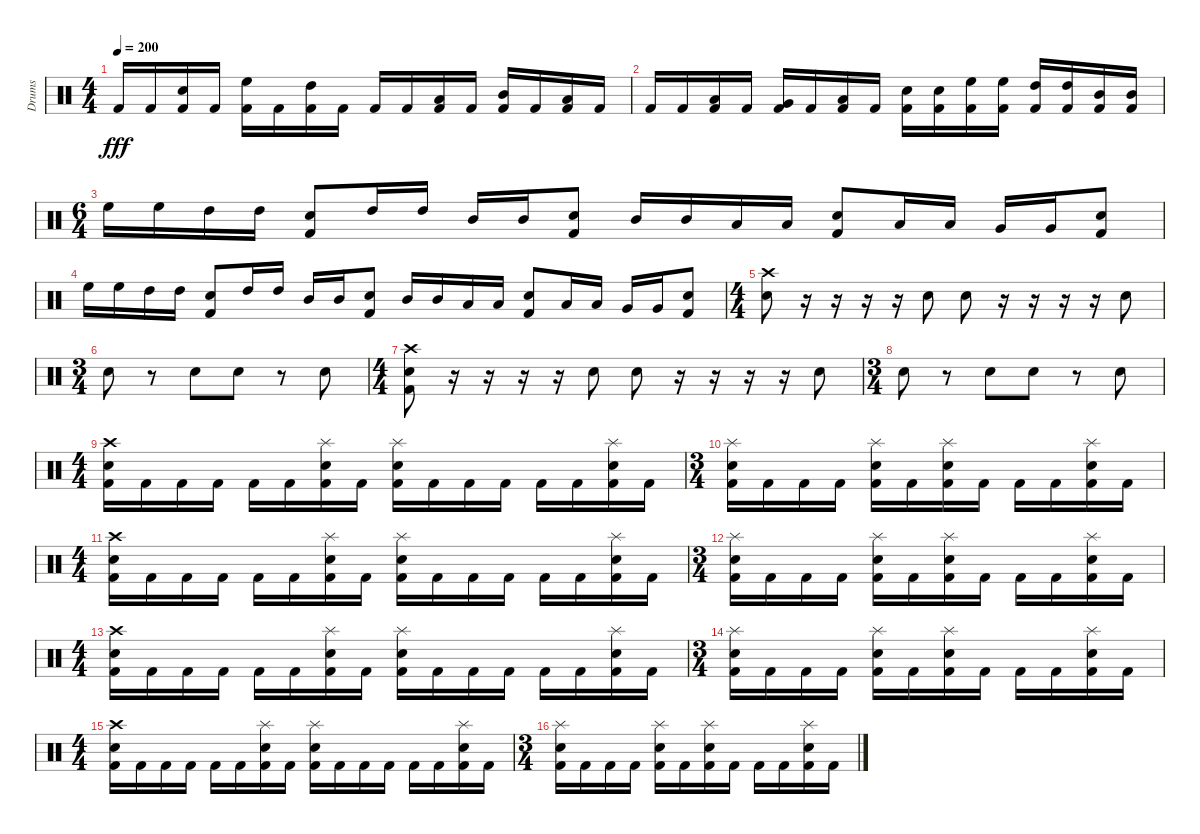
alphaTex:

\track ("Drums" "Drums") {instrument percussion}
\staff {score}
\articulation defaults
\ts (4 4)
\tempo 200
\clef neutral
\ks c "Kick (hit) 2".16{dy fff} "Kick (hit) 2".16
("Snare (hit) 2" "Kick (hit) 2").16 "Kick (hit) 2".16 ("High Floor Tom (hit)" "Kick (hit) 2").16 "Kick (hit) 2".16 ("High Tom (hit)" "Kick (hit) 2").16 "Kick (hit) 2".16 "Kick (hit) 2".16 "Kick (hit) 2".16 ("Low Tom (hit)" "Kick (hit) 2").16 "Kick (hit) 2".16 ("Mid Tom (hit)" "Kick (hit) 2").16 "Kick (hit) 2".16 ("Low Tom (hit)" "Kick (hit) 2").16 "Kick (hit) 2".16 |
"Kick (hit) 2".16 "Kick (hit) 2".16 ("Low Floor Tom (hit)" "Kick (hit) 2").16 "Kick (hit) 2".16 ("Very Low Tom (hit)" "Kick (hit) 2").16 "Kick (hit) 2".16 ("Low Floor Tom (hit)" "Kick (hit) 2").16 "Kick (hit) 2".16 ("Snare (hit) 2" "Kick (hit) 2").16 ("Snare (hit) 2" "Kick (hit) 2").16 ("High Floor Tom (hit)" "Kick (hit) 2").16 ("High Floor Tom (hit)" "Kick (hit) 2").16 ("High Tom (hit)" "Kick (hit) 2").16 ("High Tom (hit)" "Kick (hit) 2").16 ("Mid Tom (hit)" "Kick (hit) 2").16 ("Mid Tom (hit)" "Kick (hit) 2").16 |
\ts (6 4)
"High Floor Tom (hit)".16 "High Floor Tom (hit)".16 "High Tom (hit)".16 "High Tom (hit)".16 ("Snare (hit) 2" "Kick (hit) 2").8 "High Tom (hit)".16 "High Tom (hit)".16 "Mid Tom (hit)".16 "Mid Tom (hit)".16 ("Snare (hit) 2" "Kick (hit) 2").8 "Mid Tom (hit)".16 "Mid Tom (hit)".16 "Low Tom (hit)".16 "Low Tom (hit)".16 ("Snare (hit) 2" "Kick (hit) 2").8 "Low Tom (hit)".16 "Low Tom (hit)".16 "Very Low Tom (hit)".16 "Very Low Tom (hit)".16 ("Snare (hit) 2" "Kick (hit) 2").8 |
"High Floor Tom (hit)".16 "High Floor Tom (hit)".16 "High Tom (hit)".16 "High Tom (hit)".16 ("Snare (hit) 2" "Kick (hit) 2").8 "High Tom (hit)".16 "High Tom (hit)".16 "Mid Tom (hit)".16 "Mid Tom (hit)".16 ("Snare (hit) 2" "Kick (hit) 2").8 "Mid Tom (hit)".16 "Mid Tom (hit)".16 "Low Tom (hit)".16 "Low Tom (hit)".16 ("Snare (hit) 2" "Kick (hit) 2").8 "Low Tom (hit)".16 "Low Tom (hit)".16 "Very Low Tom (hit)".16 "Very Low Tom (hit)".16 ("Snare (hit) 2" "Kick (hit) 2").8 |
\ts (4 4)
("Crash high (hit)" "Snare (hit) 2").8 r.16 r.16 r.16 r.16 "Snare (hit) 2".8 "Snare (hit) 2".8 r.16 r.16 r.16 r.16 "Snare (hit) 2".8 |
\ts (3 4)
"Snare (hit) 2".8 r.8 "Snare (hit) 2".8 "Snare (hit) 2".8 r.8 "Snare (hit) 2".8 |
\ts (4 4)
("Crash high (hit)" "Snare (hit) 2" "Kick (hit) 2").8 r.16 r.16 r.16 r.16 "Snare (hit) 2".8 "Snare (hit) 2".8 r.16 r.16 r.16 r.16 "Snare (hit) 2".8 |
\ts (3 4)
"Snare (hit) 2".8 r.8 "Snare (hit) 2".8 "Snare (hit) 2".8 r.8 "Snare (hit) 2".8 |
\ts (4 4)
("Crash high (hit)" "Snare (hit) 2" "Kick (hit) 2").16 "Kick (hit) 2".16 "Kick (hit) 2".16 "Kick (hit) 2".16 "Kick (hit) 2".16 "Kick (hit) 2".16 ("Splash (hit)" "Snare (hit) 2" "Kick (hit) 2").16 "Kick (hit) 2".16 ("Splash (hit)" "Snare (hit) 2" "Kick (hit) 2").16 "Kick (hit) 2".16 "Kick (hit) 2".16 "Kick (hit) 2".16 "Kick (hit) 2".16 "Kick (hit) 2".16 ("Splash (hit)" "Snare (hit) 2" "Kick (hit) 2").16 "Kick (hit) 2".16 |
\ts (3 4)
("Splash (hit)" "Snare (hit) 2" "Kick (hit) 2").16 "Kick (hit) 2".16 "Kick (hit) 2".16 "Kick (hit) 2".16 ("Splash (hit)" "Snare (hit) 2" "Kick (hit) 2").16 "Kick (hit) 2".16 ("Splash (hit)" "Snare (hit) 2" "Kick (hit) 2").16 "Kick (hit) 2".16 "Kick (hit) 2".16 "Kick (hit) 2".16 ("Splash (hit)" "Snare (hit) 2" "Kick (hit) 2").16 "Kick (hit) 2".16 |
\ts (4 4)
("Crash high (hit)" "Snare (hit) 2" "Kick (hit) 2").16 "Kick (hit) 2".16 "Kick (hit) 2".16 "Kick (hit) 2".16 "Kick (hit) 2".16 "Kick (hit) 2".16 ("Splash (hit)" "Snare (hit) 2" "Kick (hit) 2").16 "Kick (hit) 2".16 ("Splash (hit)" "Snare (hit) 2" "Kick (hit) 2").16 "Kick (hit) 2".16 "Kick (hit) 2".16 "Kick (hit) 2".16 "Kick (hit) 2".16 "Kick (hit) 2".16 ("Splash (hit)" "Snare (hit) 2" "Kick (hit) 2").16 "Kick (hit) 2".16 |
\ts (3 4)
("Splash (hit)" "Snare (hit) 2" "Kick (hit) 2").16 "Kick (hit) 2".16 "Kick (hit) 2".16 "Kick (hit) 2".16 ("Splash (hit)" "Snare (hit) 2" "Kick (hit) 2").16 "Kick (hit) 2".16 ("Splash (hit)" "Snare (hit) 2" "Kick (hit) 2").16 "Kick (hit) 2".16 "Kick (hit) 2".16 "Kick (hit) 2".16 ("Splash (hit)" "Snare (hit) 2" "Kick (hit) 2").16 "Kick (hit) 2".16 |
\ts (4 4)
("Crash high (hit)" "Snare (hit) 2" "Kick (hit) 2").16 "Kick (hit) 2".16 "Kick (hit) 2".16 "Kick (hit) 2".16 "Kick (hit) 2".16 "Kick (hit) 2".16 ("Splash (hit)" "Snare (hit) 2" "Kick (hit) 2").16 "Kick (hit) 2".16 ("Splash (hit)" "Snare (hit) 2" "Kick (hit) 2").16 "Kick (hit) 2".16 "Kick (hit) 2".16 "Kick (hit) 2".16 "Kick (hit) 2".16 "Kick (hit) 2".16 ("Splash (hit)" "Snare (hit) 2" "Kick (hit) 2").16 "Kick (hit) 2".16 |
\ts (3 4)
("Splash (hit)" "Snare (hit) 2" "Kick (hit) 2").16 "Kick (hit) 2".16 "Kick (hit) 2".16 "Kick (hit) 2".16 ("Splash (hit)" "Snare (hit) 2" "Kick (hit) 2").16 "Kick (hit) 2".16 ("Splash (hit)" "Snare (hit) 2" "Kick (hit) 2").16 "Kick (hit) 2".16 "Kick (hit) 2".16 "Kick (hit) 2".16 ("Splash (hit)" "Snare (hit) 2" "Kick (hit) 2").16 "Kick (hit) 2".16 |
\ts (4 4)
("Crash high (hit)" "Snare (hit) 2" "Kick (hit) 2").16 "Kick (hit) 2".16 "Kick (hit) 2".16 "Kick (hit) 2".16 "Kick (hit) 2".16 "Kick (hit) 2".16 ("Splash (hit)" "Snare (hit) 2" "Kick (hit) 2").16 "Kick (hit) 2".16 ("Splash (hit)" "Snare (hit) 2" "Kick (hit) 2").16 "Kick (hit) 2".16 "Kick (hit) 2".16 "Kick (hit) 2".16 "Kick (hit) 2".16 "Kick (hit) 2".16 ("Splash (hit)" "Snare (hit) 2" "Kick (hit) 2").16 "Kick (hit) 2".16 |
\ts (3 4)
("Splash (hit)" "Snare (hit) 2" "Kick (hit) 2").16 "Kick (hit) 2".16 "Kick (hit) 2".16 "Kick (hit) 2".16 ("Splash (hit)" "Snare (hit) 2" "Kick (hit) 2").16 "Kick (hit) 2".16 ("Splash (hit)" "Snare (hit) 2" "Kick (hit) 2").16 "Kick (hit) 2".16 "Kick (hit) 2".16 "Kick (hit) 2".16 ("Splash (hit)" "Snare (hit) 2" "Kick (hit) 2").16 "Kick (hit) 2".16
